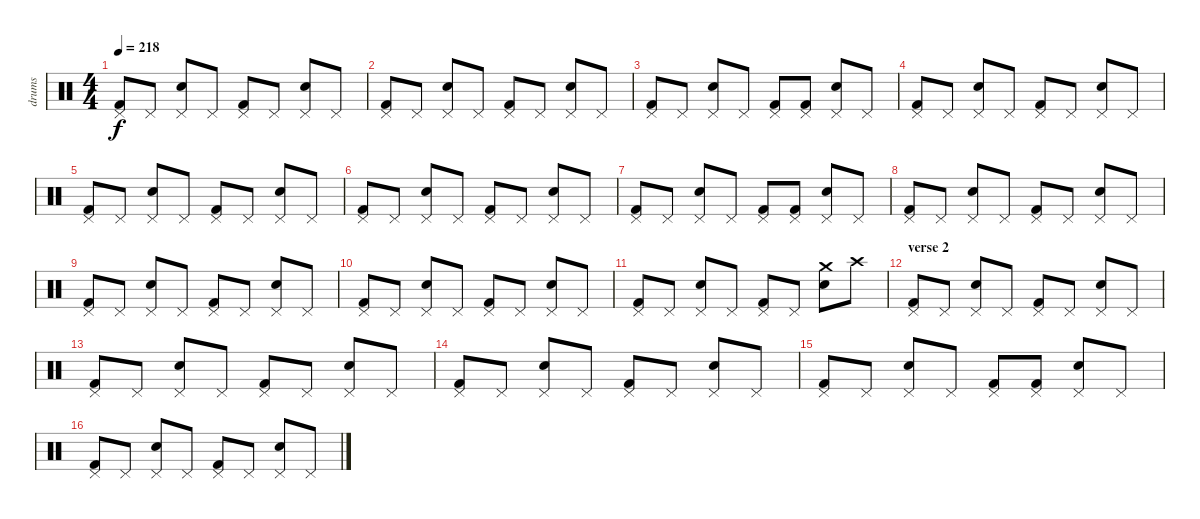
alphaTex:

\track ("drums" "drums") {instrument percussion}
\staff {score}
\articulation defaults
\ts (4 4)
\tempo 218
\clef neutral
\ks c
("Kick (hit) 2" "Pedal Hi-Hat (hit)").8{dy f} "Pedal Hi-Hat (hit)".8 ("Snare (hit) 2" "Pedal Hi-Hat (hit)").8 "Pedal Hi-Hat (hit)".8 ("Kick (hit) 2" "Pedal Hi-Hat (hit)").8 "Pedal Hi-Hat (hit)".8 ("Snare (hit) 2" "Pedal Hi-Hat (hit)").8 "Pedal Hi-Hat (hit)".8 |
("Kick (hit) 2" "Pedal Hi-Hat (hit)").8 "Pedal Hi-Hat (hit)".8 ("Snare (hit) 2" "Pedal Hi-Hat (hit)").8 "Pedal Hi-Hat (hit)".8 ("Kick (hit) 2" "Pedal Hi-Hat (hit)").8 "Pedal Hi-Hat (hit)".8 ("Snare (hit) 2" "Pedal Hi-Hat (hit)").8 "Pedal Hi-Hat (hit)".8 |
("Kick (hit) 2" "Pedal Hi-Hat (hit)").8 "Pedal Hi-Hat (hit)".8 ("Snare (hit) 2" "Pedal Hi-Hat (hit)").8 "Pedal Hi-Hat (hit)".8 ("Kick (hit) 2" "Pedal Hi-Hat (hit)").8 ("Kick (hit) 2" "Pedal Hi-Hat (hit)").8 ("Snare (hit) 2" "Pedal Hi-Hat (hit)").8 "Pedal Hi-Hat (hit)".8 |
("Kick (hit) 2" "Pedal Hi-Hat (hit)").8 "Pedal Hi-Hat (hit)".8 ("Snare (hit) 2" "Pedal Hi-Hat (hit)").8 "Pedal Hi-Hat (hit)".8 ("Kick (hit) 2" "Pedal Hi-Hat (hit)").8 "Pedal Hi-Hat (hit)".8 ("Snare (hit) 2" "Pedal Hi-Hat (hit)").8 "Pedal Hi-Hat (hit)".8 |
("Kick (hit) 2" "Pedal Hi-Hat (hit)").8 "Pedal Hi-Hat (hit)".8 ("Snare (hit) 2" "Pedal Hi-Hat (hit)").8 "Pedal Hi-Hat (hit)".8 ("Kick (hit) 2" "Pedal Hi-Hat (hit)").8 "Pedal Hi-Hat (hit)".8 ("Snare (hit) 2" "Pedal Hi-Hat (hit)").8 "Pedal Hi-Hat (hit)".8 |
("Kick (hit) 2" "Pedal Hi-Hat (hit)").8 "Pedal Hi-Hat (hit)".8 ("Snare (hit) 2" "Pedal Hi-Hat (hit)").8 "Pedal Hi-Hat (hit)".8 ("Kick (hit) 2" "Pedal Hi-Hat (hit)").8 "Pedal Hi-Hat (hit)".8 ("Snare (hit) 2" "Pedal Hi-Hat (hit)").8 "Pedal Hi-Hat (hit)".8 |
("Kick (hit) 2" "Pedal Hi-Hat (hit)").8 "Pedal Hi-Hat (hit)".8 ("Snare (hit) 2" "Pedal Hi-Hat (hit)").8 "Pedal Hi-Hat (hit)".8 ("Kick (hit) 2" "Pedal Hi-Hat (hit)").8 ("Kick (hit) 2" "Pedal Hi-Hat (hit)").8 ("Snare (hit) 2" "Pedal Hi-Hat (hit)").8 "Pedal Hi-Hat (hit)".8 |
("Kick (hit) 2" "Pedal Hi-Hat (hit)").8 "Pedal Hi-Hat (hit)".8 ("Snare (hit) 2" "Pedal Hi-Hat (hit)").8 "Pedal Hi-Hat (hit)".8 ("Kick (hit) 2" "Pedal Hi-Hat (hit)").8 "Pedal Hi-Hat (hit)".8 ("Snare (hit) 2" "Pedal Hi-Hat (hit)").8 "Pedal Hi-Hat (hit)".8 |
("Kick (hit) 2" "Pedal Hi-Hat (hit)").8 "Pedal Hi-Hat (hit)".8 ("Snare (hit) 2" "Pedal Hi-Hat (hit)").8 "Pedal Hi-Hat (hit)".8 ("Kick (hit) 2" "Pedal Hi-Hat (hit)").8 "Pedal Hi-Hat (hit)".8 ("Snare (hit) 2" "Pedal Hi-Hat (hit)").8 "Pedal Hi-Hat (hit)".8 |
("Kick (hit) 2" "Pedal Hi-Hat (hit)").8 "Pedal Hi-Hat (hit)".8 ("Snare (hit) 2" "Pedal Hi-Hat (hit)").8 "Pedal Hi-Hat (hit)".8 ("Kick (hit) 2" "Pedal Hi-Hat (hit)").8 "Pedal Hi-Hat (hit)".8 ("Snare (hit) 2" "Pedal Hi-Hat (hit)").8 "Pedal Hi-Hat (hit)".8 |
("Kick (hit) 2" "Pedal Hi-Hat (hit)").8 "Pedal Hi-Hat (hit)".8 ("Snare (hit) 2" "Pedal Hi-Hat (hit)").8 "Pedal Hi-Hat (hit)".8 ("Kick (hit) 2" "Pedal Hi-Hat (hit)").8 "Pedal Hi-Hat (hit)".8 ("Snare (hit) 2" "Crash medium (hit)").8 "Crash high (hit)".8 |
\section ("" "verse 2")
("Kick (hit) 2" "Pedal Hi-Hat (hit)").8 "Pedal Hi-Hat (hit)".8 ("Snare (hit) 2" "Pedal Hi-Hat (hit)").8 "Pedal Hi-Hat (hit)".8 ("Kick (hit) 2" "Pedal Hi-Hat (hit)").8 "Pedal Hi-Hat (hit)".8 ("Snare (hit) 2" "Pedal Hi-Hat (hit)").8 "Pedal Hi-Hat (hit)".8 |
("Kick (hit) 2" "Pedal Hi-Hat (hit)").8 "Pedal Hi-Hat (hit)".8 ("Snare (hit) 2" "Pedal Hi-Hat (hit)").8 "Pedal Hi-Hat (hit)".8 ("Kick (hit) 2" "Pedal Hi-Hat (hit)").8 "Pedal Hi-Hat (hit)".8 ("Snare (hit) 2" "Pedal Hi-Hat (hit)").8 "Pedal Hi-Hat (hit)".8 |
("Kick (hit) 2" "Pedal Hi-Hat (hit)").8 "Pedal Hi-Hat (hit)".8 ("Snare (hit) 2" "Pedal Hi-Hat (hit)").8 "Pedal Hi-Hat (hit)".8 ("Kick (hit) 2" "Pedal Hi-Hat (hit)").8 "Pedal Hi-Hat (hit)".8 ("Snare (hit) 2" "Pedal Hi-Hat (hit)").8 "Pedal Hi-Hat (hit)".8 |
("Kick (hit) 2" "Pedal Hi-Hat (hit)").8 "Pedal Hi-Hat (hit)".8 ("Snare (hit) 2" "Pedal Hi-Hat (hit)").8 "Pedal Hi-Hat (hit)".8 ("Kick (hit) 2" "Pedal Hi-Hat (hit)").8 ("Kick (hit) 2" "Pedal Hi-Hat (hit)").8 ("Snare (hit) 2" "Pedal Hi-Hat (hit)").8 "Pedal Hi-Hat (hit)".8 |
("Kick (hit) 2" "Pedal Hi-Hat (hit)").8 "Pedal Hi-Hat (hit)".8 ("Snare (hit) 2" "Pedal Hi-Hat (hit)").8 "Pedal Hi-Hat (hit)".8 ("Kick (hit) 2" "Pedal Hi-Hat (hit)").8 "Pedal Hi-Hat (hit)".8 ("Snare (hit) 2" "Pedal Hi-Hat (hit)").8 "Pedal Hi-Hat (hit)".8
